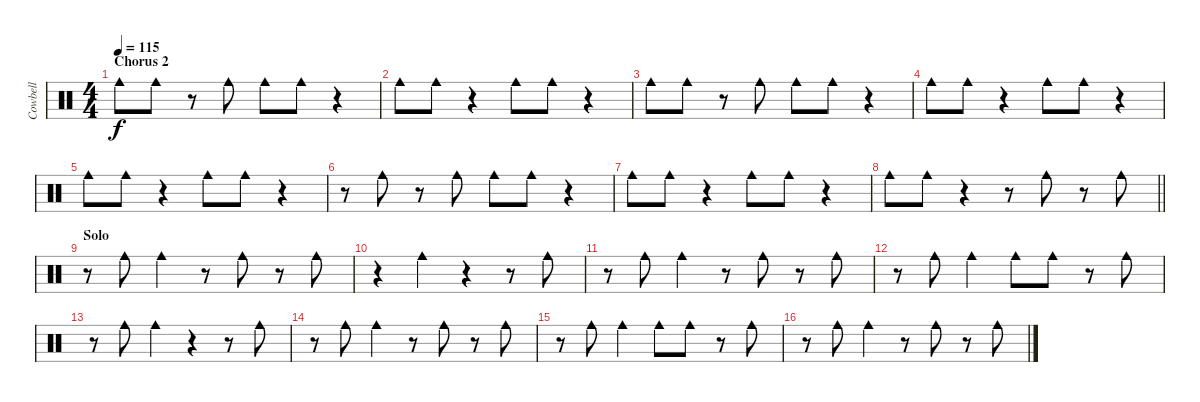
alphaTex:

\track ("Cowbell" "Cowbell") {instrument percussion}
\staff {score}
\articulation defaults
\ts (4 4)
\section ("" "Chorus 2")
\tempo 115
\clef neutral
\ks c "Cowbell medium (hit)".8{dy f} "Cowbell medium (hit)".8
r.8 "Cowbell medium (hit)".8 "Cowbell medium (hit)".8 "Cowbell medium (hit)".8 r.4 |
"Cowbell medium (hit)".8 "Cowbell medium (hit)".8 r.4 "Cowbell medium (hit)".8 "Cowbell medium (hit)".8 r.4 |
"Cowbell medium (hit)".8 "Cowbell medium (hit)".8 r.8 "Cowbell medium (hit)".8 "Cowbell medium (hit)".8 "Cowbell medium (hit)".8 r.4 |
"Cowbell medium (hit)".8 "Cowbell medium (hit)".8 r.4 "Cowbell medium (hit)".8 "Cowbell medium (hit)".8 r.4 |
"Cowbell medium (hit)".8 "Cowbell medium (hit)".8 r.4 "Cowbell medium (hit)".8 "Cowbell medium (hit)".8 r.4 |
r.8 "Cowbell medium (hit)".8 r.8 "Cowbell medium (hit)".8 "Cowbell medium (hit)".8 "Cowbell medium (hit)".8 r.4 |
"Cowbell medium (hit)".8 "Cowbell medium (hit)".8 r.4 "Cowbell medium (hit)".8 "Cowbell medium (hit)".8 r.4 |
\barLineRight lightlight "Cowbell medium (hit)".8 "Cowbell medium (hit)".8
r.4 r.8 "Cowbell medium (hit)".8 r.8 "Cowbell medium (hit)".8 |
\section ("" "Solo")
r.8 "Cowbell medium (hit)".8 "Cowbell medium (hit)".4 r.8 "Cowbell medium (hit)".8 r.8 "Cowbell medium (hit)".8 |
r.4 "Cowbell medium (hit)".4 r.4 r.8 "Cowbell medium (hit)".8 |
r.8 "Cowbell medium (hit)".8 "Cowbell medium (hit)".4 r.8 "Cowbell medium (hit)".8 r.8 "Cowbell medium (hit)".8 |
r.8 "Cowbell medium (hit)".8 "Cowbell medium (hit)".4 "Cowbell medium (hit)".8 "Cowbell medium (hit)".8 r.8 "Cowbell medium (hit)".8 |
r.8 "Cowbell medium (hit)".8 "Cowbell medium (hit)".4 r.4 r.8 "Cowbell medium (hit)".8 |
r.8 "Cowbell medium (hit)".8 "Cowbell medium (hit)".4 r.8 "Cowbell medium (hit)".8 r.8 "Cowbell medium (hit)".8 |
r.8 "Cowbell medium (hit)".8 "Cowbell medium (hit)".4 "Cowbell medium (hit)".8 "Cowbell medium (hit)".8 r.8 "Cowbell medium (hit)".8 |
r.8 "Cowbell medium (hit)".8 "Cowbell medium (hit)".4 r.8 "Cowbell medium (hit)".8 r.8 "Cowbell medium (hit)".8
